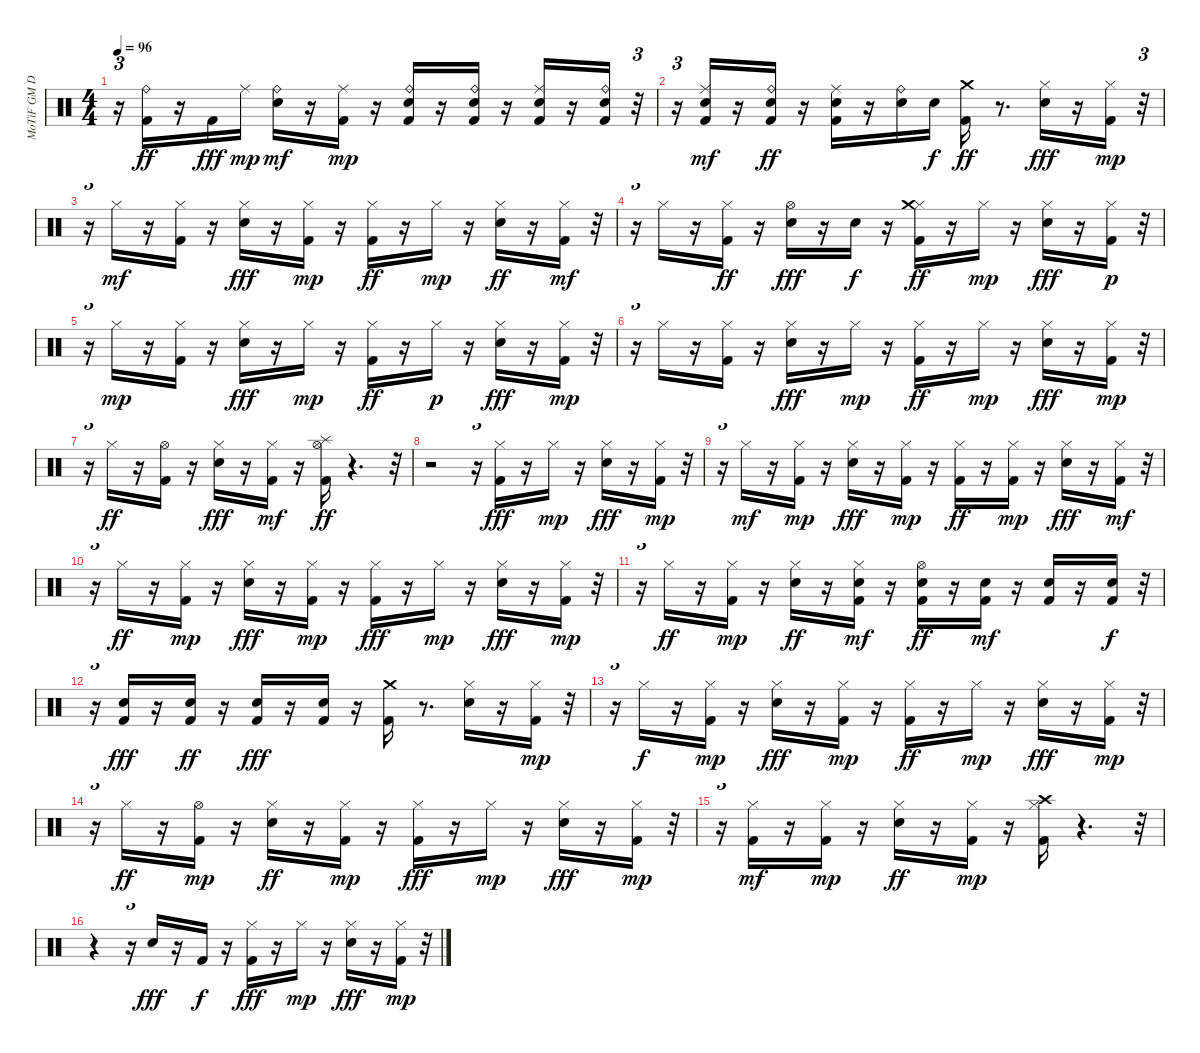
\track ("MoTiF GM Drums" "MoTiF GM D") {instrument percussion}
\staff {score}
\articulation defaults
\ts (4 4)
\tempo 96
\clef neutral
\ks c
r.16{tu (3 2) dy mf} ("Kick (hit) 2" "Ride (bell)").16{dy ff} r.16 "Kick (hit) 2".16{dy fff} "Ride (middle)".16{dy mp} ("Electric Snare (hit)" "Ride (bell)").16{dy mf} r.16 ("Kick (hit) 2" "Ride (middle)").16{dy mp} r.16 ("Kick (hit) 2" "Electric Snare (hit)" "Ride (bell)").16 r.16 ("Kick (hit) 2" "Electric Snare (hit)" "Ride (bell)").16 r.16 ("Kick (hit) 2" "Electric Snare (hit)" "Ride (middle)").16 r.16 ("Kick (hit) 2" "Electric Snare (hit)" "Ride (bell)").16 r.32{tu (3 2)} |
r.16{tu (3 2)} ("Kick (hit) 2" "Electric Snare (hit)" "Ride (middle)").16{dy mf} r.16 ("Kick (hit) 2" "Electric Snare (hit)" "Ride (bell)").16{dy ff} r.16 ("Kick (hit) 2" "Electric Snare (hit)" "Ride (middle)").16 r.16 ("Electric Snare (hit)" "Ride (bell)").16 "Electric Snare (hit)".16{dy f} ("Kick (hit) 2" "Crash medium (hit)").16{dy ff} r.8{d} ("Electric Snare (hit)" "Hi-Hat (closed)").16{dy fff} r.16 ("Kick (hit) 2" "Hi-Hat (closed)").16{dy mp} r.32{tu (3 2)} |
r.16{tu (3 2)} "Hi-Hat (closed)".16{dy mf} r.16 ("Kick (hit) 2" "Hi-Hat (closed)").16 r.16 ("Electric Snare (hit)" "Hi-Hat (closed)").16{dy fff} r.16 ("Kick (hit) 2" "Hi-Hat (closed)").16{dy mp} r.16 ("Kick (hit) 2" "Hi-Hat (closed)").16{dy ff} r.16 "Hi-Hat (closed)".16{dy mp} r.16 ("Electric Snare (hit)" "Hi-Hat (closed)").16{dy ff} r.16 ("Kick (hit) 2" "Hi-Hat (closed)").16{dy mf} r.32{tu (3 2)} |
r.16{tu (3 2)} "Hi-Hat (closed)".16 r.16 ("Kick (hit) 2" "Hi-Hat (closed)").16{dy ff} r.16 ("Electric Snare (hit)" "Hi-Hat (open)").16{dy fff} r.16 "Electric Snare (hit)".16{dy f} r.16 ("Kick (hit) 2" "Hi-Hat (closed)" "Crash medium (hit)").16{dy ff} r.16 "Hi-Hat (closed)".16{dy mp} r.16 ("Electric Snare (hit)" "Hi-Hat (closed)").16{dy fff} r.16 ("Kick (hit) 2" "Hi-Hat (closed)").16{dy p} r.32{tu (3 2)} |
r.16{tu (3 2)} "Hi-Hat (closed)".16{dy mp} r.16 ("Kick (hit) 2" "Hi-Hat (closed)").16 r.16 ("Electric Snare (hit)" "Hi-Hat (closed)").16{dy fff} r.16 "Hi-Hat (closed)".16{dy mp} r.16 ("Kick (hit) 2" "Hi-Hat (closed)").16{dy ff} r.16 "Hi-Hat (closed)".16{dy p} r.16 ("Electric Snare (hit)" "Hi-Hat (closed)").16{dy fff} r.16 ("Kick (hit) 2" "Hi-Hat (closed)").16{dy mp} r.32{tu (3 2)} |
r.16{tu (3 2)} "Hi-Hat (closed)".16 r.16 ("Kick (hit) 2" "Hi-Hat (closed)").16 r.16 ("Electric Snare (hit)" "Hi-Hat (closed)").16{dy fff} r.16 "Hi-Hat (closed)".16{dy mp} r.16 ("Kick (hit) 2" "Hi-Hat (closed)").16{dy ff} r.16 "Hi-Hat (closed)".16{dy mp} r.16 ("Electric Snare (hit)" "Hi-Hat (closed)").16{dy fff} r.16 ("Kick (hit) 2" "Hi-Hat (closed)").16{dy mp} r.32{tu (3 2)} |
r.16{tu (3 2)} "Hi-Hat (closed)".16{dy ff} r.16 ("Kick (hit) 2" "Hi-Hat (open)").16 r.16 ("Electric Snare (hit)" "Hi-Hat (closed)").16{dy fff} r.16 ("Kick (hit) 2" "Hi-Hat (closed)").16{dy mf} r.16 ("Kick (hit) 2" "Hi-Hat (open)" "Splash (hit)").16{dy ff} r.4{d} r.32{tu (3 2)} |
r.2 r.16{tu (3 2)} ("Kick (hit) 2" "Hi-Hat (closed)").16{dy fff} r.16 "Hi-Hat (closed)".16{dy mp} r.16 ("Electric Snare (hit)" "Hi-Hat (closed)").16{dy fff} r.16 ("Kick (hit) 2" "Hi-Hat (closed)").16{dy mp} r.32{tu (3 2)} |
r.16{tu (3 2)} "Hi-Hat (closed)".16{dy mf} r.16 ("Kick (hit) 2" "Hi-Hat (closed)").16{dy mp} r.16 ("Electric Snare (hit)" "Hi-Hat (closed)").16{dy fff} r.16 ("Kick (hit) 2" "Hi-Hat (closed)").16{dy mp} r.16 ("Kick (hit) 2" "Hi-Hat (closed)").16{dy ff} r.16 ("Kick (hit) 2" "Hi-Hat (closed)").16{dy mp} r.16 ("Electric Snare (hit)" "Hi-Hat (closed)").16{dy fff} r.16 ("Kick (hit) 2" "Hi-Hat (closed)").16{dy mf} r.32{tu (3 2)} |
r.16{tu (3 2)} "Hi-Hat (closed)".16{dy ff} r.16 ("Kick (hit) 2" "Hi-Hat (closed)").16{dy mp} r.16 ("Electric Snare (hit)" "Hi-Hat (closed)").16{dy fff} r.16 ("Kick (hit) 2" "Hi-Hat (closed)").16{dy mp} r.16 ("Kick (hit) 2" "Hi-Hat (closed)").16{dy fff} r.16 "Hi-Hat (closed)".16{dy mp} r.16 ("Electric Snare (hit)" "Hi-Hat (closed)").16{dy fff} r.16 ("Kick (hit) 2" "Hi-Hat (closed)").16{dy mp} r.32{tu (3 2)} |
r.16{tu (3 2)} "Hi-Hat (closed)".16{dy ff} r.16 ("Kick (hit) 2" "Hi-Hat (closed)").16{dy mp} r.16 ("Electric Snare (hit)" "Hi-Hat (closed)").16{dy ff} r.16 ("Kick (hit) 2" "Electric Snare (hit)" "Hi-Hat (closed)").16{dy mf} r.16 ("Kick (hit) 2" "Electric Snare (hit)" "Hi-Hat (open)").16{dy ff} r.16 ("Kick (hit) 2" "Electric Snare (hit)").16{dy mf} r.16 ("Kick (hit) 2" "Electric Snare (hit)").16 r.16 ("Kick (hit) 2" "Electric Snare (hit)").16{dy f} r.32{tu (3 2)} |
r.16{tu (3 2)} ("Kick (hit) 2" "Electric Snare (hit)").16{dy fff} r.16 ("Kick (hit) 2" "Electric Snare (hit)").16{dy ff} r.16 ("Kick (hit) 2" "Electric Snare (hit)").16{dy fff} r.16 ("Kick (hit) 2" "Electric Snare (hit)").16 r.16 ("Kick (hit) 2" "Crash medium (hit)").16 r.8{d} ("Electric Snare (hit)" "Hi-Hat (closed)").16 r.16 ("Kick (hit) 2" "Hi-Hat (closed)").16{dy mp} r.32{tu (3 2)} |
r.16{tu (3 2)} "Hi-Hat (closed)".16{dy f} r.16 ("Kick (hit) 2" "Hi-Hat (closed)").16{dy mp} r.16 ("Electric Snare (hit)" "Hi-Hat (closed)").16{dy fff} r.16 ("Kick (hit) 2" "Hi-Hat (closed)").16{dy mp} r.16 ("Kick (hit) 2" "Hi-Hat (closed)").16{dy ff} r.16 "Hi-Hat (closed)".16{dy mp} r.16 ("Electric Snare (hit)" "Hi-Hat (closed)").16{dy fff} r.16 ("Kick (hit) 2" "Hi-Hat (closed)").16{dy mp} r.32{tu (3 2)} |
r.16{tu (3 2)} "Hi-Hat (closed)".16{dy ff} r.16 ("Kick (hit) 2" "Hi-Hat (open)").16{dy mp} r.16 ("Electric Snare (hit)" "Hi-Hat (closed)").16{dy ff} r.16 ("Kick (hit) 2" "Hi-Hat (closed)").16{dy mp} r.16 ("Kick (hit) 2" "Hi-Hat (closed)").16{dy fff} r.16 "Hi-Hat (closed)".16{dy mp} r.16 ("Electric Snare (hit)" "Hi-Hat (closed)").16{dy fff} r.16 ("Kick (hit) 2" "Hi-Hat (closed)").16{dy mp} r.32{tu (3 2)} |
r.16{tu (3 2)} ("Kick (hit) 2" "Hi-Hat (closed)").16{dy mf} r.16 ("Kick (hit) 2" "Hi-Hat (closed)").16{dy mp} r.16 ("Electric Snare (hit)" "Hi-Hat (closed)").16{dy ff} r.16 ("Kick (hit) 2" "Hi-Hat (closed)").16{dy mp} r.16 ("Kick (hit) 2" "Hi-Hat (closed)" "Crash high (hit)").16 r.4{d} r.32{tu (3 2)} |
r.4 r.16{tu (3 2)} "Electric Snare (hit)".16{dy fff} r.16 "Kick (hit) 2".16{dy f} r.16 ("Kick (hit) 2" "Hi-Hat (closed)").16{dy fff} r.16 "Hi-Hat (closed)".16{dy mp} r.16 ("Electric Snare (hit)" "Hi-Hat (closed)").16{dy fff} r.16 ("Kick (hit) 2" "Hi-Hat (closed)").16{dy mp} r.32{tu (3 2)}
